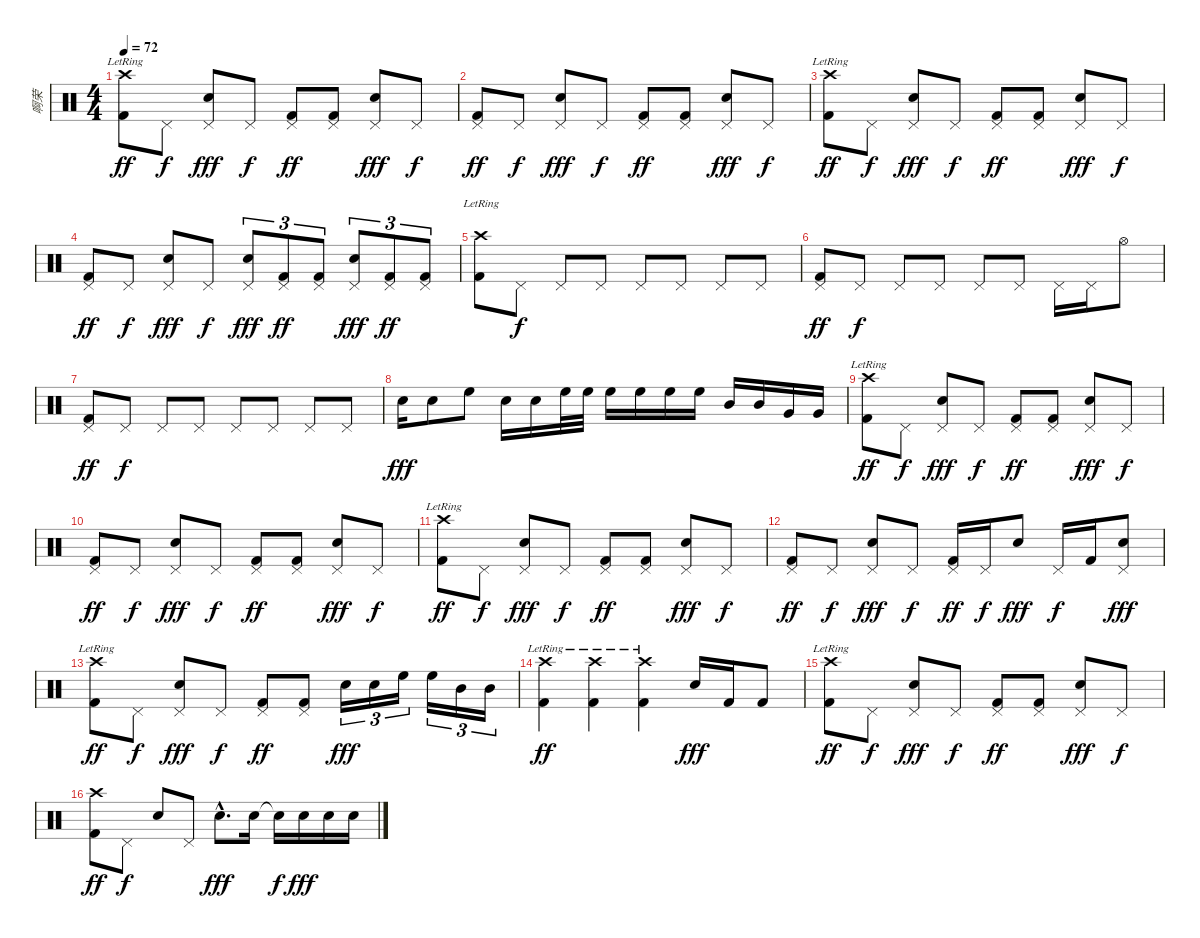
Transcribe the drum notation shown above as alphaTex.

\track ("啊荣" "啊荣") {instrument percussion}
\staff {score}
\articulation defaults
\ts (4 4)
\tempo 72
\clef neutral
\ks c
("Crash high (hit)"{lr} "Kick (hit) 2").8{dy ff} "Pedal Hi-Hat (hit)".8{dy f} ("Pedal Hi-Hat (hit)" "Electric Snare (hit)").8{dy fff} "Pedal Hi-Hat (hit)".8{dy f} ("Pedal Hi-Hat (hit)" "Kick (hit) 2").8{dy ff} ("Pedal Hi-Hat (hit)" "Kick (hit) 2").8 ("Pedal Hi-Hat (hit)" "Electric Snare (hit)").8{dy fff} "Pedal Hi-Hat (hit)".8{dy f} |
("Pedal Hi-Hat (hit)" "Kick (hit) 2").8{dy ff} "Pedal Hi-Hat (hit)".8{dy f} ("Pedal Hi-Hat (hit)" "Electric Snare (hit)").8{dy fff} "Pedal Hi-Hat (hit)".8{dy f} ("Pedal Hi-Hat (hit)" "Kick (hit) 2").8{dy ff} ("Pedal Hi-Hat (hit)" "Kick (hit) 2").8 ("Pedal Hi-Hat (hit)" "Electric Snare (hit)").8{dy fff} "Pedal Hi-Hat (hit)".8{dy f} |
("Crash high (hit)"{lr} "Kick (hit) 2").8{dy ff} "Pedal Hi-Hat (hit)".8{dy f} ("Pedal Hi-Hat (hit)" "Electric Snare (hit)").8{dy fff} "Pedal Hi-Hat (hit)".8{dy f} ("Pedal Hi-Hat (hit)" "Kick (hit) 2").8{dy ff} ("Pedal Hi-Hat (hit)" "Kick (hit) 2").8 ("Pedal Hi-Hat (hit)" "Electric Snare (hit)").8{dy fff} "Pedal Hi-Hat (hit)".8{dy f} |
("Pedal Hi-Hat (hit)" "Kick (hit) 2").8{dy ff} "Pedal Hi-Hat (hit)".8{dy f} ("Pedal Hi-Hat (hit)" "Electric Snare (hit)").8{dy fff} "Pedal Hi-Hat (hit)".8{dy f} ("Pedal Hi-Hat (hit)" "Electric Snare (hit)").8{tu (3 2) dy fff} ("Pedal Hi-Hat (hit)" "Kick (hit) 2").8{tu (3 2) dy ff} ("Pedal Hi-Hat (hit)" "Kick (hit) 2").8{tu (3 2)} ("Pedal Hi-Hat (hit)" "Electric Snare (hit)").8{tu (3 2) dy fff} ("Pedal Hi-Hat (hit)" "Kick (hit) 2").8{tu (3 2) dy ff} ("Pedal Hi-Hat (hit)" "Kick (hit) 2").8{tu (3 2)} |
("Crash high (hit)"{lr} "Kick (hit) 2").8 "Pedal Hi-Hat (hit)".8{dy f} "Pedal Hi-Hat (hit)".8 "Pedal Hi-Hat (hit)".8 "Pedal Hi-Hat (hit)".8 "Pedal Hi-Hat (hit)".8 "Pedal Hi-Hat (hit)".8 "Pedal Hi-Hat (hit)".8 |
("Pedal Hi-Hat (hit)" "Kick (hit) 2").8{dy ff} "Pedal Hi-Hat (hit)".8{dy f} "Pedal Hi-Hat (hit)".8 "Pedal Hi-Hat (hit)".8 "Pedal Hi-Hat (hit)".8 "Pedal Hi-Hat (hit)".8 "Pedal Hi-Hat (hit)".16 "Pedal Hi-Hat (hit)".16 "Hi-Hat (open)".8 |
("Pedal Hi-Hat (hit)" "Kick (hit) 2").8{dy ff} "Pedal Hi-Hat (hit)".8{dy f} "Pedal Hi-Hat (hit)".8 "Pedal Hi-Hat (hit)".8 "Pedal Hi-Hat (hit)".8 "Pedal Hi-Hat (hit)".8 "Pedal Hi-Hat (hit)".8 "Pedal Hi-Hat (hit)".8 |
"Electric Snare (hit)".16{dy fff} "Electric Snare (hit)".8 "High Floor Tom (hit)".8 "Electric Snare (hit)".16 "Electric Snare (hit)".16 "High Floor Tom (hit)".32 "High Floor Tom (hit)".32 "High Floor Tom (hit)".16 "High Floor Tom (hit)".16 "High Floor Tom (hit)".16 "High Floor Tom (hit)".16 "Mid Tom (hit)".16 "Mid Tom (hit)".16 "Very Low Tom (hit)".16 "Very Low Tom (hit)".16 |
("Crash high (hit)"{lr} "Kick (hit) 2").8{dy ff} "Pedal Hi-Hat (hit)".8{dy f} ("Pedal Hi-Hat (hit)" "Electric Snare (hit)").8{dy fff} "Pedal Hi-Hat (hit)".8{dy f} ("Pedal Hi-Hat (hit)" "Kick (hit) 2").8{dy ff} ("Pedal Hi-Hat (hit)" "Kick (hit) 2").8 ("Pedal Hi-Hat (hit)" "Electric Snare (hit)").8{dy fff} "Pedal Hi-Hat (hit)".8{dy f} |
("Pedal Hi-Hat (hit)" "Kick (hit) 2").8{dy ff} "Pedal Hi-Hat (hit)".8{dy f} ("Pedal Hi-Hat (hit)" "Electric Snare (hit)").8{dy fff} "Pedal Hi-Hat (hit)".8{dy f} ("Pedal Hi-Hat (hit)" "Kick (hit) 2").8{dy ff} ("Pedal Hi-Hat (hit)" "Kick (hit) 2").8 ("Pedal Hi-Hat (hit)" "Electric Snare (hit)").8{dy fff} "Pedal Hi-Hat (hit)".8{dy f} |
("Crash high (hit)"{lr} "Kick (hit) 2").8{dy ff} "Pedal Hi-Hat (hit)".8{dy f} ("Pedal Hi-Hat (hit)" "Electric Snare (hit)").8{dy fff} "Pedal Hi-Hat (hit)".8{dy f} ("Pedal Hi-Hat (hit)" "Kick (hit) 2").8{dy ff} ("Pedal Hi-Hat (hit)" "Kick (hit) 2").8 ("Pedal Hi-Hat (hit)" "Electric Snare (hit)").8{dy fff} "Pedal Hi-Hat (hit)".8{dy f} |
("Pedal Hi-Hat (hit)" "Kick (hit) 2").8{dy ff} "Pedal Hi-Hat (hit)".8{dy f} ("Pedal Hi-Hat (hit)" "Electric Snare (hit)").8{dy fff} "Pedal Hi-Hat (hit)".8{dy f} ("Pedal Hi-Hat (hit)" "Kick (hit) 2").16{dy ff} "Pedal Hi-Hat (hit)".16{dy f} "Electric Snare (hit)".8{dy fff} "Pedal Hi-Hat (hit)".16{dy f} "Kick (hit) 2".16 ("Pedal Hi-Hat (hit)" "Electric Snare (hit)").8{dy fff} |
("Crash high (hit)"{lr} "Kick (hit) 2").8{dy ff} "Pedal Hi-Hat (hit)".8{dy f} ("Pedal Hi-Hat (hit)" "Electric Snare (hit)").8{dy fff} "Pedal Hi-Hat (hit)".8{dy f} ("Pedal Hi-Hat (hit)" "Kick (hit) 2").8{dy ff} ("Pedal Hi-Hat (hit)" "Kick (hit) 2").8 "Electric Snare (hit)".16{tu (3 2) dy fff} "Electric Snare (hit)".16{tu (3 2)} "High Floor Tom (hit)".16{tu (3 2)} "High Floor Tom (hit)".16{tu (3 2)} "Mid Tom (hit)".16{tu (3 2)} "Mid Tom (hit)".16{tu (3 2)} |
("Crash high (hit)"{lr} "Kick (hit) 2").4{dy ff} ("Crash high (hit)"{lr} "Kick (hit) 2").4 ("Crash high (hit)"{lr} "Kick (hit) 2").4 "Electric Snare (hit)".16{dy fff} "Kick (hit) 2".16 "Kick (hit) 2".8 |
("Crash high (hit)"{lr} "Kick (hit) 2").8{dy ff} "Pedal Hi-Hat (hit)".8{dy f} ("Pedal Hi-Hat (hit)" "Electric Snare (hit)").8{dy fff} "Pedal Hi-Hat (hit)".8{dy f} ("Pedal Hi-Hat (hit)" "Kick (hit) 2").8{dy ff} ("Pedal Hi-Hat (hit)" "Kick (hit) 2").8 ("Pedal Hi-Hat (hit)" "Electric Snare (hit)").8{dy fff} "Pedal Hi-Hat (hit)".8{dy f} |
("Crash high (hit)" "Kick (hit) 2").8{dy ff} "Pedal Hi-Hat (hit)".8{dy f} "Electric Snare (hit)".8 "Pedal Hi-Hat (hit)".8 "Electric Snare (hit)"{hac}.8{d dy fff} "Electric Snare (hit)".16 "Snare (hit)"{t}.16{dy f} "Electric Snare (hit)".16{dy fff} "Electric Snare (hit)".16 "Electric Snare (hit)".16
